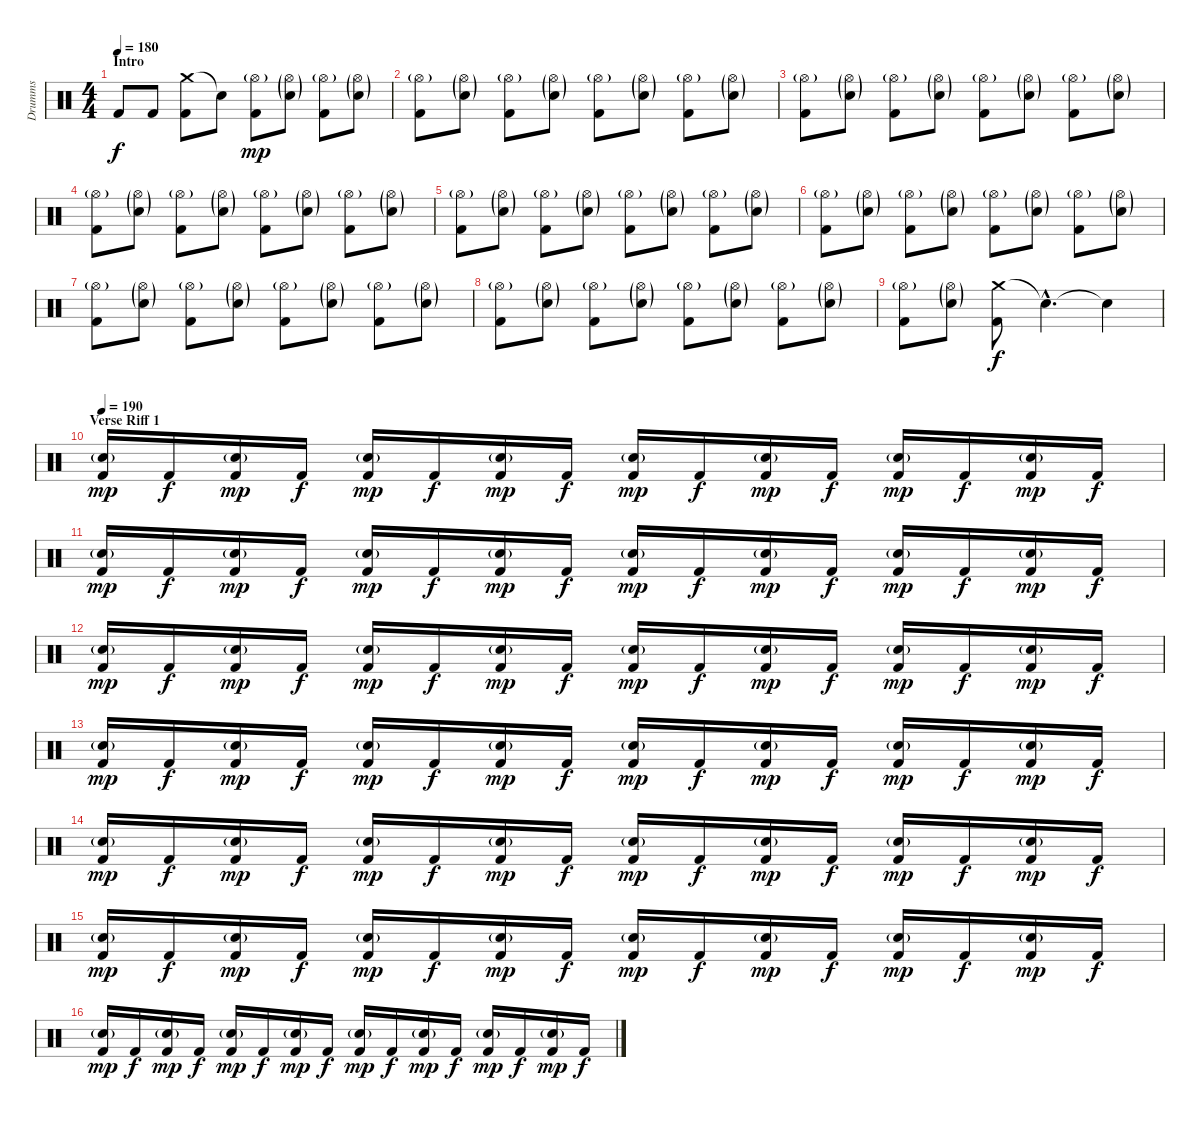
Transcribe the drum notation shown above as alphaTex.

\track ("Drumms" "Drumms") {instrument percussion}
\staff {score}
\articulation defaults
\ts (4 4)
\section ("" "Intro")
\tempo 180
\clef neutral
\ks c "Kick (hit) 2".8{dy f} "Kick (hit) 2".8
("Crash medium (hit)" "Kick (hit) 2").8 "Snare (hit)"{t}.8 ("Hi-Hat (open)"{g} "Kick (hit) 2").8{dy mp} ("Hi-Hat (open)"{g} "Snare (hit) 2"{g}).8 ("Hi-Hat (open)"{g} "Kick (hit) 2").8 ("Hi-Hat (open)"{g} "Snare (hit) 2"{g}).8 |
("Hi-Hat (open)"{g} "Kick (hit) 2").8 ("Hi-Hat (open)"{g} "Snare (hit) 2"{g}).8 ("Hi-Hat (open)"{g} "Kick (hit) 2").8 ("Hi-Hat (open)"{g} "Snare (hit) 2"{g}).8 ("Hi-Hat (open)"{g} "Kick (hit) 2").8 ("Hi-Hat (open)"{g} "Snare (hit) 2"{g}).8 ("Hi-Hat (open)"{g} "Kick (hit) 2").8 ("Hi-Hat (open)"{g} "Snare (hit) 2"{g}).8 |
("Hi-Hat (open)"{g} "Kick (hit) 2").8 ("Hi-Hat (open)"{g} "Snare (hit) 2"{g}).8 ("Hi-Hat (open)"{g} "Kick (hit) 2").8 ("Hi-Hat (open)"{g} "Snare (hit) 2"{g}).8 ("Hi-Hat (open)"{g} "Kick (hit) 2").8 ("Hi-Hat (open)"{g} "Snare (hit) 2"{g}).8 ("Hi-Hat (open)"{g} "Kick (hit) 2").8 ("Hi-Hat (open)"{g} "Snare (hit) 2"{g}).8 |
("Hi-Hat (open)"{g} "Kick (hit) 2").8 ("Hi-Hat (open)"{g} "Snare (hit) 2"{g}).8 ("Hi-Hat (open)"{g} "Kick (hit) 2").8 ("Hi-Hat (open)"{g} "Snare (hit) 2"{g}).8 ("Hi-Hat (open)"{g} "Kick (hit) 2").8 ("Hi-Hat (open)"{g} "Snare (hit) 2"{g}).8 ("Hi-Hat (open)"{g} "Kick (hit) 2").8 ("Hi-Hat (open)"{g} "Snare (hit) 2"{g}).8 |
("Hi-Hat (open)"{g} "Kick (hit) 2").8 ("Hi-Hat (open)"{g} "Snare (hit) 2"{g}).8 ("Hi-Hat (open)"{g} "Kick (hit) 2").8 ("Hi-Hat (open)"{g} "Snare (hit) 2"{g}).8 ("Hi-Hat (open)"{g} "Kick (hit) 2").8 ("Hi-Hat (open)"{g} "Snare (hit) 2"{g}).8 ("Hi-Hat (open)"{g} "Kick (hit) 2").8 ("Hi-Hat (open)"{g} "Snare (hit) 2"{g}).8 |
("Hi-Hat (open)"{g} "Kick (hit) 2").8 ("Hi-Hat (open)"{g} "Snare (hit) 2"{g}).8 ("Hi-Hat (open)"{g} "Kick (hit) 2").8 ("Hi-Hat (open)"{g} "Snare (hit) 2"{g}).8 ("Hi-Hat (open)"{g} "Kick (hit) 2").8 ("Hi-Hat (open)"{g} "Snare (hit) 2"{g}).8 ("Hi-Hat (open)"{g} "Kick (hit) 2").8 ("Hi-Hat (open)"{g} "Snare (hit) 2"{g}).8 |
("Hi-Hat (open)"{g} "Kick (hit) 2").8 ("Hi-Hat (open)"{g} "Snare (hit) 2"{g}).8 ("Hi-Hat (open)"{g} "Kick (hit) 2").8 ("Hi-Hat (open)"{g} "Snare (hit) 2"{g}).8 ("Hi-Hat (open)"{g} "Kick (hit) 2").8 ("Hi-Hat (open)"{g} "Snare (hit) 2"{g}).8 ("Hi-Hat (open)"{g} "Kick (hit) 2").8 ("Hi-Hat (open)"{g} "Snare (hit) 2"{g}).8 |
("Hi-Hat (open)"{g} "Kick (hit) 2").8 ("Hi-Hat (open)"{g} "Snare (hit) 2"{g}).8 ("Hi-Hat (open)"{g} "Kick (hit) 2").8 ("Hi-Hat (open)"{g} "Snare (hit) 2"{g}).8 ("Hi-Hat (open)"{g} "Kick (hit) 2").8 ("Hi-Hat (open)"{g} "Snare (hit) 2"{g}).8 ("Hi-Hat (open)"{g} "Kick (hit) 2").8 ("Hi-Hat (open)"{g} "Snare (hit) 2"{g}).8 |
("Hi-Hat (open)"{g} "Kick (hit) 2").8 ("Hi-Hat (open)"{g} "Snare (hit) 2"{g}).8 ("Crash medium (hit)" "Kick (hit) 2").8{dy f} "Snare (hit)"{hac t}.4{d} "Snare (hit)"{t}.4 |
\section ("" "Verse Riff 1")
\tempo 190
("Electric Snare (hit)"{g} "Kick (hit) 2").16{dy mp} "Kick (hit) 2".16{dy f} ("Electric Snare (hit)"{g} "Kick (hit) 2").16{dy mp} "Kick (hit) 2".16{dy f} ("Electric Snare (hit)"{g} "Kick (hit) 2").16{dy mp} "Kick (hit) 2".16{dy f} ("Electric Snare (hit)"{g} "Kick (hit) 2").16{dy mp} "Kick (hit) 2".16{dy f} ("Electric Snare (hit)"{g} "Kick (hit) 2").16{dy mp} "Kick (hit) 2".16{dy f} ("Electric Snare (hit)"{g} "Kick (hit) 2").16{dy mp} "Kick (hit) 2".16{dy f} ("Electric Snare (hit)"{g} "Kick (hit) 2").16{dy mp} "Kick (hit) 2".16{dy f} ("Electric Snare (hit)"{g} "Kick (hit) 2").16{dy mp} "Kick (hit) 2".16{dy f} |
("Electric Snare (hit)"{g} "Kick (hit) 2").16{dy mp} "Kick (hit) 2".16{dy f} ("Electric Snare (hit)"{g} "Kick (hit) 2").16{dy mp} "Kick (hit) 2".16{dy f} ("Electric Snare (hit)"{g} "Kick (hit) 2").16{dy mp} "Kick (hit) 2".16{dy f} ("Electric Snare (hit)"{g} "Kick (hit) 2").16{dy mp} "Kick (hit) 2".16{dy f} ("Electric Snare (hit)"{g} "Kick (hit) 2").16{dy mp} "Kick (hit) 2".16{dy f} ("Electric Snare (hit)"{g} "Kick (hit) 2").16{dy mp} "Kick (hit) 2".16{dy f} ("Electric Snare (hit)"{g} "Kick (hit) 2").16{dy mp} "Kick (hit) 2".16{dy f} ("Electric Snare (hit)"{g} "Kick (hit) 2").16{dy mp} "Kick (hit) 2".16{dy f} |
("Electric Snare (hit)"{g} "Kick (hit) 2").16{dy mp} "Kick (hit) 2".16{dy f} ("Electric Snare (hit)"{g} "Kick (hit) 2").16{dy mp} "Kick (hit) 2".16{dy f} ("Electric Snare (hit)"{g} "Kick (hit) 2").16{dy mp} "Kick (hit) 2".16{dy f} ("Electric Snare (hit)"{g} "Kick (hit) 2").16{dy mp} "Kick (hit) 2".16{dy f} ("Electric Snare (hit)"{g} "Kick (hit) 2").16{dy mp} "Kick (hit) 2".16{dy f} ("Electric Snare (hit)"{g} "Kick (hit) 2").16{dy mp} "Kick (hit) 2".16{dy f} ("Electric Snare (hit)"{g} "Kick (hit) 2").16{dy mp} "Kick (hit) 2".16{dy f} ("Electric Snare (hit)"{g} "Kick (hit) 2").16{dy mp} "Kick (hit) 2".16{dy f} |
("Electric Snare (hit)"{g} "Kick (hit) 2").16{dy mp} "Kick (hit) 2".16{dy f} ("Electric Snare (hit)"{g} "Kick (hit) 2").16{dy mp} "Kick (hit) 2".16{dy f} ("Electric Snare (hit)"{g} "Kick (hit) 2").16{dy mp} "Kick (hit) 2".16{dy f} ("Electric Snare (hit)"{g} "Kick (hit) 2").16{dy mp} "Kick (hit) 2".16{dy f} ("Electric Snare (hit)"{g} "Kick (hit) 2").16{dy mp} "Kick (hit) 2".16{dy f} ("Electric Snare (hit)"{g} "Kick (hit) 2").16{dy mp} "Kick (hit) 2".16{dy f} ("Electric Snare (hit)"{g} "Kick (hit) 2").16{dy mp} "Kick (hit) 2".16{dy f} ("Electric Snare (hit)"{g} "Kick (hit) 2").16{dy mp} "Kick (hit) 2".16{dy f} |
("Electric Snare (hit)"{g} "Kick (hit) 2").16{dy mp} "Kick (hit) 2".16{dy f} ("Electric Snare (hit)"{g} "Kick (hit) 2").16{dy mp} "Kick (hit) 2".16{dy f} ("Electric Snare (hit)"{g} "Kick (hit) 2").16{dy mp} "Kick (hit) 2".16{dy f} ("Electric Snare (hit)"{g} "Kick (hit) 2").16{dy mp} "Kick (hit) 2".16{dy f} ("Electric Snare (hit)"{g} "Kick (hit) 2").16{dy mp} "Kick (hit) 2".16{dy f} ("Electric Snare (hit)"{g} "Kick (hit) 2").16{dy mp} "Kick (hit) 2".16{dy f} ("Electric Snare (hit)"{g} "Kick (hit) 2").16{dy mp} "Kick (hit) 2".16{dy f} ("Electric Snare (hit)"{g} "Kick (hit) 2").16{dy mp} "Kick (hit) 2".16{dy f} |
("Electric Snare (hit)"{g} "Kick (hit) 2").16{dy mp} "Kick (hit) 2".16{dy f} ("Electric Snare (hit)"{g} "Kick (hit) 2").16{dy mp} "Kick (hit) 2".16{dy f} ("Electric Snare (hit)"{g} "Kick (hit) 2").16{dy mp} "Kick (hit) 2".16{dy f} ("Electric Snare (hit)"{g} "Kick (hit) 2").16{dy mp} "Kick (hit) 2".16{dy f} ("Electric Snare (hit)"{g} "Kick (hit) 2").16{dy mp} "Kick (hit) 2".16{dy f} ("Electric Snare (hit)"{g} "Kick (hit) 2").16{dy mp} "Kick (hit) 2".16{dy f} ("Electric Snare (hit)"{g} "Kick (hit) 2").16{dy mp} "Kick (hit) 2".16{dy f} ("Electric Snare (hit)"{g} "Kick (hit) 2").16{dy mp} "Kick (hit) 2".16{dy f} |
("Electric Snare (hit)"{g} "Kick (hit) 2").16{dy mp} "Kick (hit) 2".16{dy f} ("Electric Snare (hit)"{g} "Kick (hit) 2").16{dy mp} "Kick (hit) 2".16{dy f} ("Electric Snare (hit)"{g} "Kick (hit) 2").16{dy mp} "Kick (hit) 2".16{dy f} ("Electric Snare (hit)"{g} "Kick (hit) 2").16{dy mp} "Kick (hit) 2".16{dy f} ("Electric Snare (hit)"{g} "Kick (hit) 2").16{dy mp} "Kick (hit) 2".16{dy f} ("Electric Snare (hit)"{g} "Kick (hit) 2").16{dy mp} "Kick (hit) 2".16{dy f} ("Electric Snare (hit)"{g} "Kick (hit) 2").16{dy mp} "Kick (hit) 2".16{dy f} ("Electric Snare (hit)"{g} "Kick (hit) 2").16{dy mp} "Kick (hit) 2".16{dy f}
